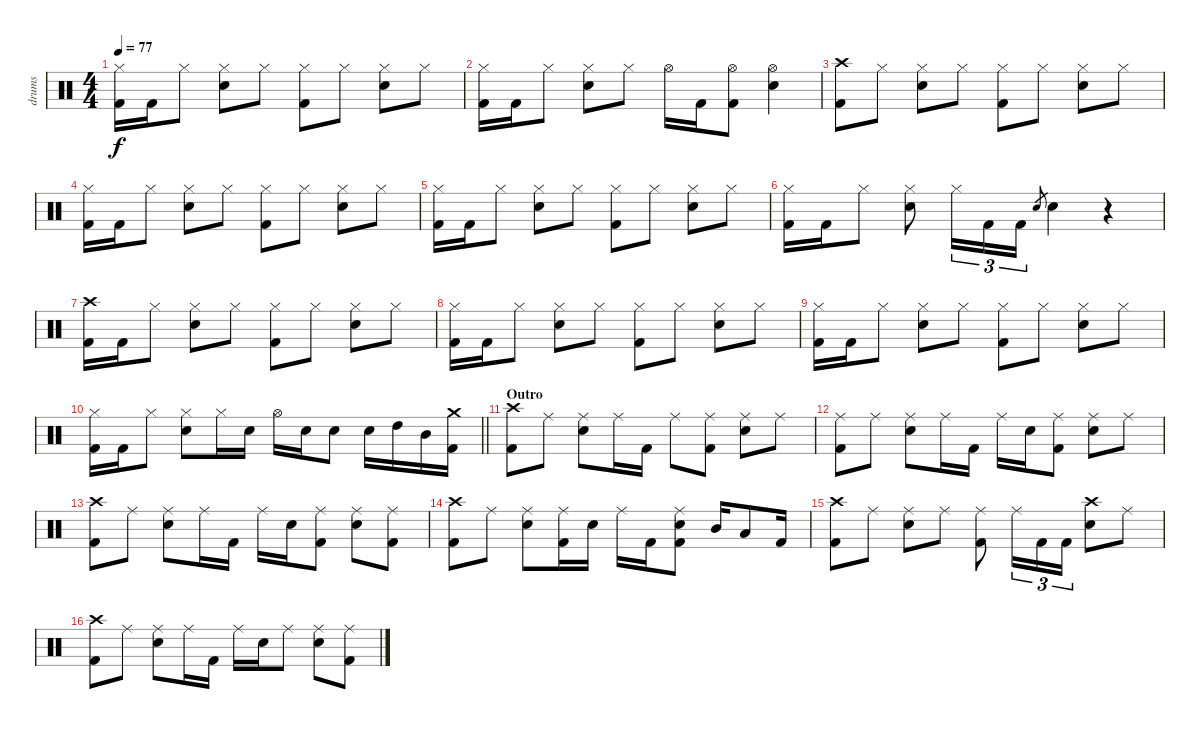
\track ("drums" "drums") {instrument percussion}
\staff {score}
\articulation defaults
\ts (4 4)
\tempo 77
\clef neutral
\ks c
("Hi-Hat (closed)" "Kick (hit) 2").16{dy f} "Kick (hit) 2".16 "Hi-Hat (closed)".8 ("Hi-Hat (closed)" "Electric Snare (hit)").8 "Hi-Hat (closed)".8 ("Hi-Hat (closed)" "Kick (hit) 2").8 "Hi-Hat (closed)".8 ("Hi-Hat (closed)" "Electric Snare (hit)").8 "Hi-Hat (closed)".8 |
("Hi-Hat (closed)" "Kick (hit) 2").16 "Kick (hit) 2".16 "Hi-Hat (closed)".8 ("Hi-Hat (closed)" "Electric Snare (hit)").8 "Hi-Hat (closed)".8 "Hi-Hat (open)".16 "Kick (hit) 2".16 ("Hi-Hat (open)" "Kick (hit) 2").8 ("Hi-Hat (open)" "Electric Snare (hit)").4 |
("Crash high (hit)" "Kick (hit) 2").8 "Hi-Hat (closed)".8 ("Hi-Hat (closed)" "Electric Snare (hit)").8 "Hi-Hat (closed)".8 ("Hi-Hat (closed)" "Kick (hit) 2").8 "Hi-Hat (closed)".8 ("Hi-Hat (closed)" "Electric Snare (hit)").8 "Hi-Hat (closed)".8 |
("Hi-Hat (closed)" "Kick (hit) 2").16 "Kick (hit) 2".16 "Hi-Hat (closed)".8 ("Hi-Hat (closed)" "Electric Snare (hit)").8 "Hi-Hat (closed)".8 ("Hi-Hat (closed)" "Kick (hit) 2").8 "Hi-Hat (closed)".8 ("Hi-Hat (closed)" "Electric Snare (hit)").8 "Hi-Hat (closed)".8 |
("Hi-Hat (closed)" "Kick (hit) 2").16 "Kick (hit) 2".16 "Hi-Hat (closed)".8 ("Hi-Hat (closed)" "Electric Snare (hit)").8 "Hi-Hat (closed)".8 ("Hi-Hat (closed)" "Kick (hit) 2").8 "Hi-Hat (closed)".8 ("Hi-Hat (closed)" "Electric Snare (hit)").8 "Hi-Hat (closed)".8 |
("Hi-Hat (closed)" "Kick (hit) 2").16 "Kick (hit) 2".16 "Hi-Hat (closed)".8 ("Hi-Hat (closed)" "Electric Snare (hit)").8 "Hi-Hat (closed)".16{tu (3 2)} "Kick (hit) 2".16{tu (3 2)} "Kick (hit) 2".16{tu (3 2)} "Electric Snare (hit)".8{gr} "Electric Snare (hit)".4 r.4 |
("Crash high (hit)" "Kick (hit) 2").16 "Kick (hit) 2".16 "Hi-Hat (closed)".8 ("Hi-Hat (closed)" "Electric Snare (hit)").8 "Hi-Hat (closed)".8 ("Hi-Hat (closed)" "Kick (hit) 2").8 "Hi-Hat (closed)".8 ("Hi-Hat (closed)" "Electric Snare (hit)").8 "Hi-Hat (closed)".8 |
("Hi-Hat (closed)" "Kick (hit) 2").16 "Kick (hit) 2".16 "Hi-Hat (closed)".8 ("Hi-Hat (closed)" "Electric Snare (hit)").8 "Hi-Hat (closed)".8 ("Hi-Hat (closed)" "Kick (hit) 2").8 "Hi-Hat (closed)".8 ("Hi-Hat (closed)" "Electric Snare (hit)").8 "Hi-Hat (closed)".8 |
("Hi-Hat (closed)" "Kick (hit) 2").16 "Kick (hit) 2".16 "Hi-Hat (closed)".8 ("Hi-Hat (closed)" "Electric Snare (hit)").8 "Hi-Hat (closed)".8 ("Hi-Hat (closed)" "Kick (hit) 2").8 "Hi-Hat (closed)".8 ("Hi-Hat (closed)" "Electric Snare (hit)").8 "Hi-Hat (closed)".8 |
\barLineRight lightlight
("Hi-Hat (closed)" "Kick (hit) 2").16 "Kick (hit) 2".16 "Hi-Hat (closed)".8 ("Hi-Hat (closed)" "Electric Snare (hit)").8 "Hi-Hat (closed)".16 "Electric Snare (hit)".16 "Hi-Hat (open)".16 "Electric Snare (hit)".16 "Electric Snare (hit)".8 "Electric Snare (hit)".16 "High Tom (hit)".16 "Mid Tom (hit)".16 ("Crash medium (hit)" "Kick (hit) 2").16 |
\section ("" "Outro")
("Crash high (hit)" "Kick (hit) 2").8 "Ride (middle)".8 ("Ride (middle)" "Electric Snare (hit)").8 "Ride (middle)".16 "Kick (hit) 2".16 "Ride (middle)".8 ("Ride (middle)" "Kick (hit) 2").8 ("Ride (middle)" "Electric Snare (hit)").8 "Ride (middle)".8 |
("Ride (middle)" "Kick (hit) 2").8 "Ride (middle)".8 ("Ride (middle)" "Electric Snare (hit)").8 "Ride (middle)".16 "Kick (hit) 2".16 "Ride (middle)".16 "Electric Snare (hit)".16 ("Ride (middle)" "Kick (hit) 2").8 ("Ride (middle)" "Electric Snare (hit)").8 "Ride (middle)".8 |
("Crash high (hit)" "Kick (hit) 2").8 "Ride (middle)".8 ("Ride (middle)" "Electric Snare (hit)").8 "Ride (middle)".16 "Kick (hit) 2".16 "Ride (middle)".16 "Electric Snare (hit)".16 ("Ride (middle)" "Kick (hit) 2").8 ("Ride (middle)" "Electric Snare (hit)").8 ("Ride (middle)" "Kick (hit) 2").8 |
("Crash high (hit)" "Kick (hit) 2").8 "Ride (middle)".8 ("Ride (middle)" "Electric Snare (hit)").8 ("Ride (middle)" "Kick (hit) 2").16 "Electric Snare (hit)".16 "Ride (middle)".16 "Kick (hit) 2".16 ("Ride (middle)" "Electric Snare (hit)" "Kick (hit) 2").8 "Mid Tom (hit)".16 "Low Tom (hit)".8 "Kick (hit) 2".16 |
("Crash high (hit)" "Kick (hit) 2").8 "Ride (middle)".8 ("Ride (middle)" "Electric Snare (hit)").8 "Ride (middle)".8 ("Ride (middle)" "Kick (hit) 2").8 "Ride (middle)".16{tu (3 2)} "Kick (hit) 2".16{tu (3 2)} "Kick (hit) 2".16{tu (3 2)} ("Crash high (hit)" "Electric Snare (hit)").8 "Ride (middle)".8 |
("Crash high (hit)" "Kick (hit) 2").8 "Ride (middle)".8 ("Ride (middle)" "Electric Snare (hit)").8 "Ride (middle)".16 "Kick (hit) 2".16 "Ride (middle)".16 "Electric Snare (hit)".16 "Ride (middle)".8 ("Ride (middle)" "Electric Snare (hit)").8 ("Ride (middle)" "Kick (hit) 2").8
